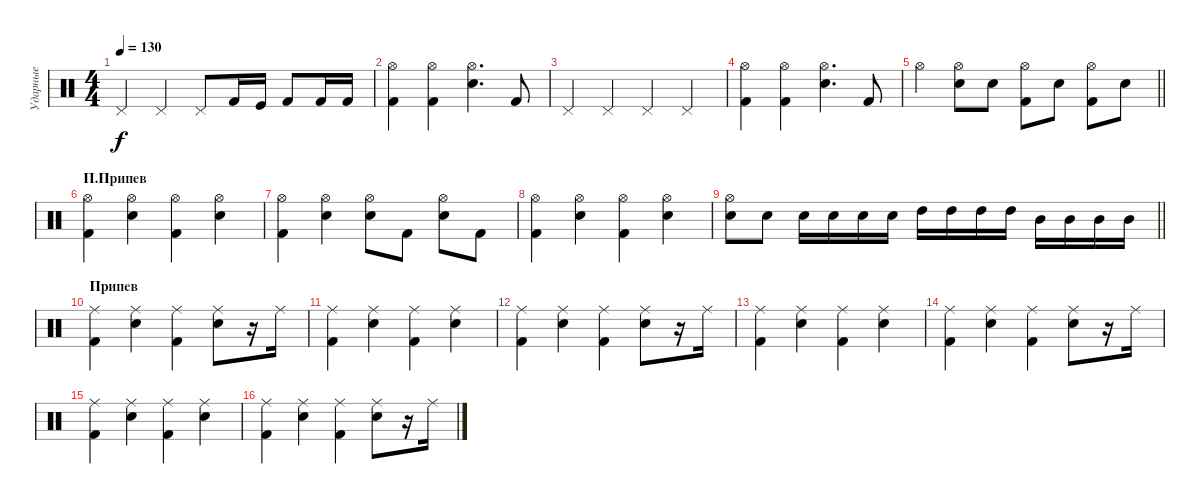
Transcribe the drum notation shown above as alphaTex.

\track ("Ударные" "Ударные") {instrument percussion}
\staff {score}
\articulation defaults
\ts (4 4)
\tempo 130
\clef neutral
\ks c "Pedal Hi-Hat (hit)".4{dy f} "Pedal Hi-Hat (hit)".4 "Pedal Hi-Hat (hit)".8 "Kick (hit) 2".16 "Kick (hit)".16 "Kick (hit) 2".8 "Kick (hit) 2".16 "Kick (hit) 2".16
|
("Hi-Hat (open)" "Kick (hit) 2").4 ("Hi-Hat (open)" "Kick (hit) 2").4 ("Hi-Hat (open)" "Snare (hit) 2").4{d} "Kick (hit) 2".8 |
"Pedal Hi-Hat (hit)".4 "Pedal Hi-Hat (hit)".4 "Pedal Hi-Hat (hit)".4 "Pedal Hi-Hat (hit)".4 |
("Hi-Hat (open)" "Kick (hit) 2").4 ("Hi-Hat (open)" "Kick (hit) 2").4 ("Hi-Hat (open)" "Snare (hit) 2").4{d} "Kick (hit) 2".8 |
\barLineRight lightlight "Hi-Hat (open)".4
("Electric Snare (hit)" "Hi-Hat (open)").8 "Electric Snare (hit)".8 ("Kick (hit) 2" "Hi-Hat (open)").8 "Snare (hit) 2".8 ("Kick (hit) 2" "Hi-Hat (open)").8 "Snare (hit) 2".8 |
\section ("" "П.Припев")
("Hi-Hat (open)" "Kick (hit) 2").4 ("Hi-Hat (open)" "Snare (hit) 2").4 ("Hi-Hat (open)" "Kick (hit) 2").4 ("Hi-Hat (open)" "Snare (hit) 2").4 |
("Hi-Hat (open)" "Kick (hit) 2").4 ("Hi-Hat (open)" "Snare (hit) 2").4 ("Hi-Hat (open)" "Snare (hit) 2").8 "Kick (hit) 2".8 ("Hi-Hat (open)" "Snare (hit) 2").8 "Kick (hit) 2".8 |
("Hi-Hat (open)" "Kick (hit) 2").4 ("Hi-Hat (open)" "Snare (hit) 2").4 ("Hi-Hat (open)" "Kick (hit) 2").4 ("Hi-Hat (open)" "Snare (hit) 2").4 |
\barLineRight lightlight
("Hi-Hat (open)" "Snare (hit) 2").8 "Snare (hit) 2".8 "Snare (hit) 2".16 "Snare (hit) 2".16 "Snare (hit) 2".16 "Snare (hit) 2".16 "High Tom (hit)".16 "High Tom (hit)".16 "High Tom (hit)".16 "High Tom (hit)".16 "Mid Tom (hit)".16 "Mid Tom (hit)".16 "Mid Tom (hit)".16 "Mid Tom (hit)".16 |
\section ("" "Припев")
("Ride (middle)" "Kick (hit) 2").4 ("Ride (middle)" "Snare (hit) 2").4 ("Ride (middle)" "Kick (hit) 2").4 ("Ride (middle)" "Snare (hit) 2").8 r.16 "Ride (middle)".16 |
("Ride (middle)" "Kick (hit) 2").4 ("Ride (middle)" "Snare (hit) 2").4 ("Ride (middle)" "Kick (hit) 2").4 ("Ride (middle)" "Snare (hit) 2").4 |
("Ride (middle)" "Kick (hit) 2").4 ("Ride (middle)" "Snare (hit) 2").4 ("Ride (middle)" "Kick (hit) 2").4 ("Ride (middle)" "Snare (hit) 2").8 r.16 "Ride (middle)".16 |
("Ride (middle)" "Kick (hit) 2").4 ("Ride (middle)" "Snare (hit) 2").4 ("Ride (middle)" "Kick (hit) 2").4 ("Ride (middle)" "Snare (hit) 2").4 |
("Ride (middle)" "Kick (hit) 2").4 ("Ride (middle)" "Snare (hit) 2").4 ("Ride (middle)" "Kick (hit) 2").4 ("Ride (middle)" "Snare (hit) 2").8 r.16 "Ride (middle)".16 |
("Ride (middle)" "Kick (hit) 2").4 ("Ride (middle)" "Snare (hit) 2").4 ("Ride (middle)" "Kick (hit) 2").4 ("Ride (middle)" "Snare (hit) 2").4 |
("Ride (middle)" "Kick (hit) 2").4 ("Ride (middle)" "Snare (hit) 2").4 ("Ride (middle)" "Kick (hit) 2").4 ("Ride (middle)" "Snare (hit) 2").8 r.16 "Ride (middle)".16
